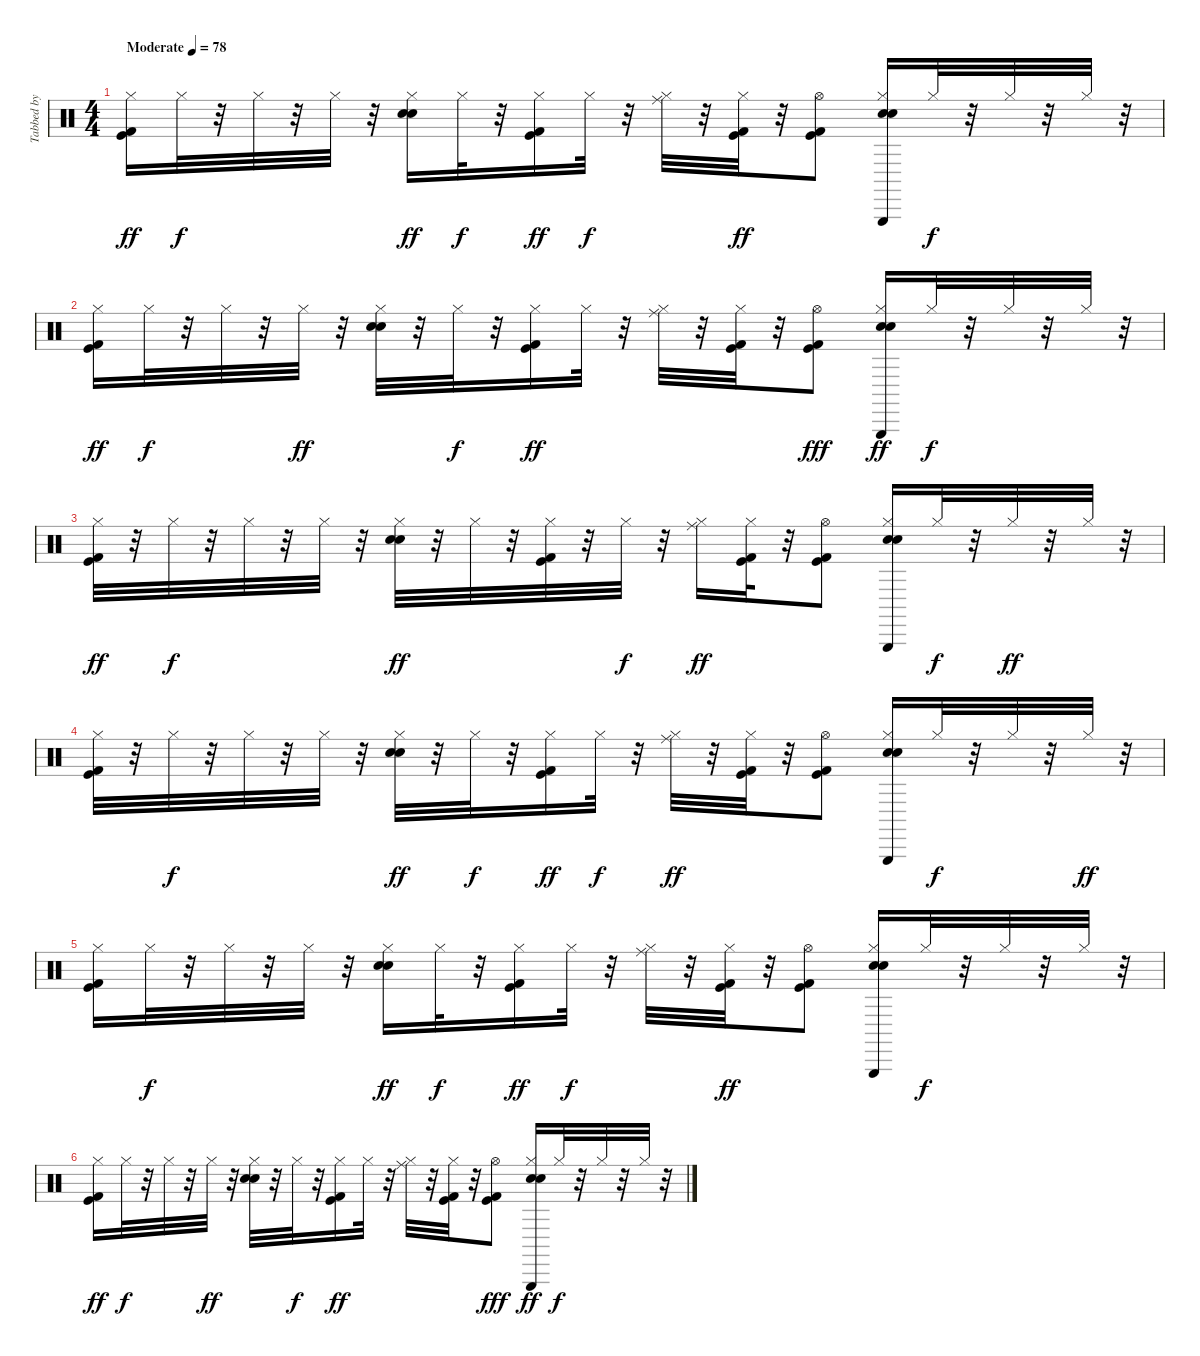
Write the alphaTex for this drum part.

\track ("Tabbed by Ade" "Tabbed by ") {instrument percussion}
\staff {score}
\articulation defaults
\ts (4 4)
\tempo (78 "Moderate")
\clef neutral
\ks c
("Kick (hit) 2" "Kick (hit)" "Hi-Hat (closed)").16{dy ff} "Hi-Hat (closed)".32{dy f} r.32 "Hi-Hat (closed)".32 r.32 "Hi-Hat (closed)".32 r.32 ("Hi-Hat (closed)" "Snare (hit) 2" "Hand Clap (hit)").16{dy ff} "Hi-Hat (closed)".32{dy f} r.32 ("Hi-Hat (closed)" "Kick (hit) 2" "Kick (hit)").16{dy ff} "Hi-Hat (closed)".32{dy f} r.32 ("Hi-Hat (closed)" "Ride (middle)").32 r.32 ("Hi-Hat (closed)" "Kick (hit) 2" "Kick (hit)").32{dy ff} r.32 ("Hi-Hat (open)" "Kick (hit) 2" "Kick (hit)").8 ("Hi-Hat (closed)" "Triangle (hit)" "Hand Clap (hit)" "Snare (hit) 2").16 "Hi-Hat (closed)".32{dy f} r.32 "Hi-Hat (closed)".32 r.32 "Hi-Hat (closed)".32 r.32 |
("Hi-Hat (closed)" "Kick (hit) 2" "Kick (hit)").16{dy ff} "Hi-Hat (closed)".32{dy f} r.32 "Hi-Hat (closed)".32 r.32 "Hi-Hat (closed)".32{dy ff} r.32 ("Hi-Hat (closed)" "Snare (hit) 2" "Hand Clap (hit)").32 r.32 "Hi-Hat (closed)".32{dy f} r.32 ("Hi-Hat (closed)" "Kick (hit) 2" "Kick (hit)").16{dy ff} "Hi-Hat (closed)".32 r.32 ("Hi-Hat (closed)" "Ride (middle)").32 r.32 ("Hi-Hat (closed)" "Kick (hit)" "Kick (hit) 2").32 r.32 ("Hi-Hat (open)" "Kick (hit) 2" "Kick (hit)").8{dy fff} ("Hi-Hat (closed)" "Triangle (hit)" "Snare (hit) 2" "Hand Clap (hit)").16{dy ff} "Hi-Hat (closed)".32{dy f} r.32 "Hi-Hat (closed)".32 r.32 "Hi-Hat (closed)".32 r.32 |
("Kick (hit) 2" "Hi-Hat (closed)" "Kick (hit)").32{dy ff} r.32 "Hi-Hat (closed)".32{dy f} r.32 "Hi-Hat (closed)".32 r.32 "Hi-Hat (closed)".32 r.32 ("Hi-Hat (closed)" "Snare (hit) 2" "Hand Clap (hit)").32{dy ff} r.32 "Hi-Hat (closed)".32 r.32 ("Hi-Hat (closed)" "Kick (hit) 2" "Kick (hit)").32 r.32 "Hi-Hat (closed)".32{dy f} r.32 ("Hi-Hat (closed)" "Ride (middle)").16{dy ff} ("Hi-Hat (closed)" "Kick (hit) 2" "Kick (hit)").32 r.32 ("Hi-Hat (open)" "Kick (hit) 2" "Kick (hit)").8 ("Hi-Hat (closed)" "Triangle (hit)" "Snare (hit) 2" "Hand Clap (hit)").16 "Hi-Hat (closed)".32{dy f} r.32 "Hi-Hat (closed)".32{dy ff} r.32 "Hi-Hat (closed)".32 r.32 |
("Hi-Hat (closed)" "Kick (hit) 2" "Kick (hit)").32 r.32 "Hi-Hat (closed)".32{dy f} r.32 "Hi-Hat (closed)".32 r.32 "Hi-Hat (closed)".32 r.32 ("Hi-Hat (closed)" "Snare (hit) 2" "Hand Clap (hit)").32{dy ff} r.32 "Hi-Hat (closed)".32{dy f} r.32 ("Hi-Hat (closed)" "Kick (hit) 2" "Kick (hit)").16{dy ff} "Hi-Hat (closed)".32{dy f} r.32 ("Hi-Hat (closed)" "Ride (middle)").32{dy ff} r.32 ("Hi-Hat (closed)" "Kick (hit) 2" "Kick (hit)").32 r.32 ("Hi-Hat (open)" "Kick (hit) 2" "Kick (hit)").8 ("Hi-Hat (closed)" "Triangle (hit)" "Snare (hit) 2" "Hand Clap (hit)").16 "Hi-Hat (closed)".32{dy f} r.32 "Hi-Hat (closed)".32 r.32 "Hi-Hat (closed)".32{dy ff} r.32 |
("Kick (hit) 2" "Kick (hit)" "Hi-Hat (closed)").16 "Hi-Hat (closed)".32{dy f} r.32 "Hi-Hat (closed)".32 r.32 "Hi-Hat (closed)".32 r.32 ("Hi-Hat (closed)" "Snare (hit) 2" "Hand Clap (hit)").16{dy ff} "Hi-Hat (closed)".32{dy f} r.32 ("Hi-Hat (closed)" "Kick (hit) 2" "Kick (hit)").16{dy ff} "Hi-Hat (closed)".32{dy f} r.32 ("Hi-Hat (closed)" "Ride (middle)").32 r.32 ("Hi-Hat (closed)" "Kick (hit) 2" "Kick (hit)").32{dy ff} r.32 ("Hi-Hat (open)" "Kick (hit) 2" "Kick (hit)").8 ("Hi-Hat (closed)" "Triangle (hit)" "Hand Clap (hit)" "Snare (hit) 2").16 "Hi-Hat (closed)".32{dy f} r.32 "Hi-Hat (closed)".32 r.32 "Hi-Hat (closed)".32 r.32 |
("Hi-Hat (closed)" "Kick (hit) 2" "Kick (hit)").16{dy ff} "Hi-Hat (closed)".32{dy f} r.32 "Hi-Hat (closed)".32 r.32 "Hi-Hat (closed)".32{dy ff} r.32 ("Hi-Hat (closed)" "Snare (hit) 2" "Hand Clap (hit)").32 r.32 "Hi-Hat (closed)".32{dy f} r.32 ("Hi-Hat (closed)" "Kick (hit) 2" "Kick (hit)").16{dy ff} "Hi-Hat (closed)".32 r.32 ("Hi-Hat (closed)" "Ride (middle)").32 r.32 ("Hi-Hat (closed)" "Kick (hit)" "Kick (hit) 2").32 r.32 ("Hi-Hat (open)" "Kick (hit) 2" "Kick (hit)").8{dy fff} ("Hi-Hat (closed)" "Triangle (hit)" "Snare (hit) 2" "Hand Clap (hit)").16{dy ff} "Hi-Hat (closed)".32{dy f} r.32 "Hi-Hat (closed)".32 r.32 "Hi-Hat (closed)".32 r.32
